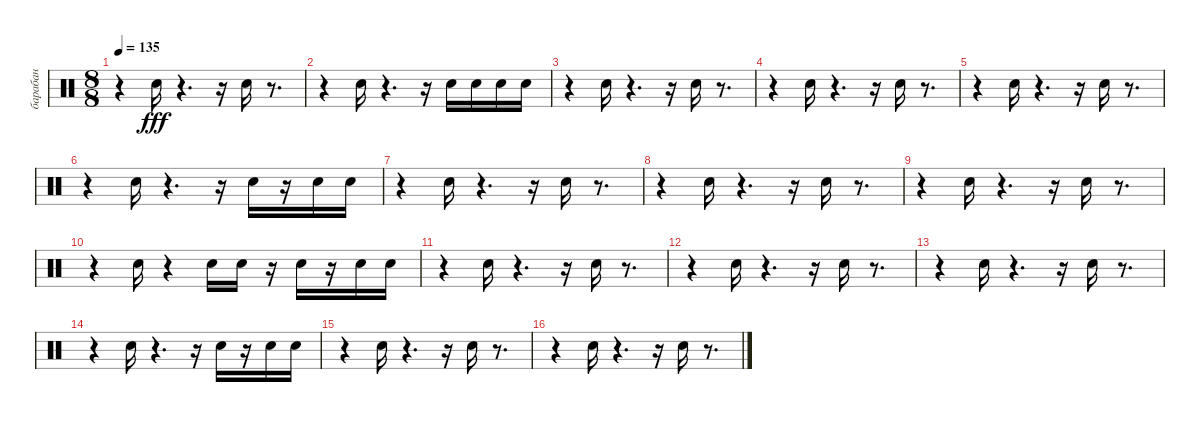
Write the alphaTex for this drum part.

\track ("барабан" "барабан") {instrument percussion}
\staff {score}
\articulation defaults
\ts (8 8)
\tempo 135
\clef neutral
\ks c
r.4{dy fff} "Snare (hit) 2".16 r.4{d} r.16 "Snare (hit) 2".16 r.8{d} |
r.4 "Snare (hit) 2".16 r.4{d} r.16 "Snare (hit) 2".16 "Snare (hit) 2".16 "Snare (hit) 2".16 "Snare (hit) 2".16 |
r.4 "Snare (hit) 2".16 r.4{d} r.16 "Snare (hit) 2".16 r.8{d} |
r.4 "Snare (hit) 2".16 r.4{d} r.16 "Snare (hit) 2".16 r.8{d} |
r.4 "Snare (hit) 2".16 r.4{d} r.16 "Snare (hit) 2".16 r.8{d} |
r.4 "Snare (hit) 2".16 r.4{d} r.16 "Snare (hit) 2".16 r.16 "Snare (hit) 2".16 "Snare (hit) 2".16 |
r.4 "Snare (hit) 2".16 r.4{d} r.16 "Snare (hit) 2".16 r.8{d} |
r.4 "Snare (hit) 2".16 r.4{d} r.16 "Snare (hit) 2".16 r.8{d} |
r.4 "Snare (hit) 2".16 r.4{d} r.16 "Snare (hit) 2".16 r.8{d} |
r.4 "Snare (hit) 2".16 r.4 "Snare (hit) 2".16 "Snare (hit) 2".16 r.16 "Snare (hit) 2".16 r.16 "Snare (hit) 2".16 "Snare (hit) 2".16 |
r.4 "Snare (hit) 2".16 r.4{d} r.16 "Snare (hit) 2".16 r.8{d} |
r.4 "Snare (hit) 2".16 r.4{d} r.16 "Snare (hit) 2".16 r.8{d} |
r.4 "Snare (hit) 2".16 r.4{d} r.16 "Snare (hit) 2".16 r.8{d} |
r.4 "Snare (hit) 2".16 r.4{d} r.16 "Snare (hit) 2".16 r.16 "Snare (hit) 2".16 "Snare (hit) 2".16 |
r.4 "Snare (hit) 2".16 r.4{d} r.16 "Snare (hit) 2".16 r.8{d} |
r.4 "Snare (hit) 2".16 r.4{d} r.16 "Snare (hit) 2".16 r.8{d}
